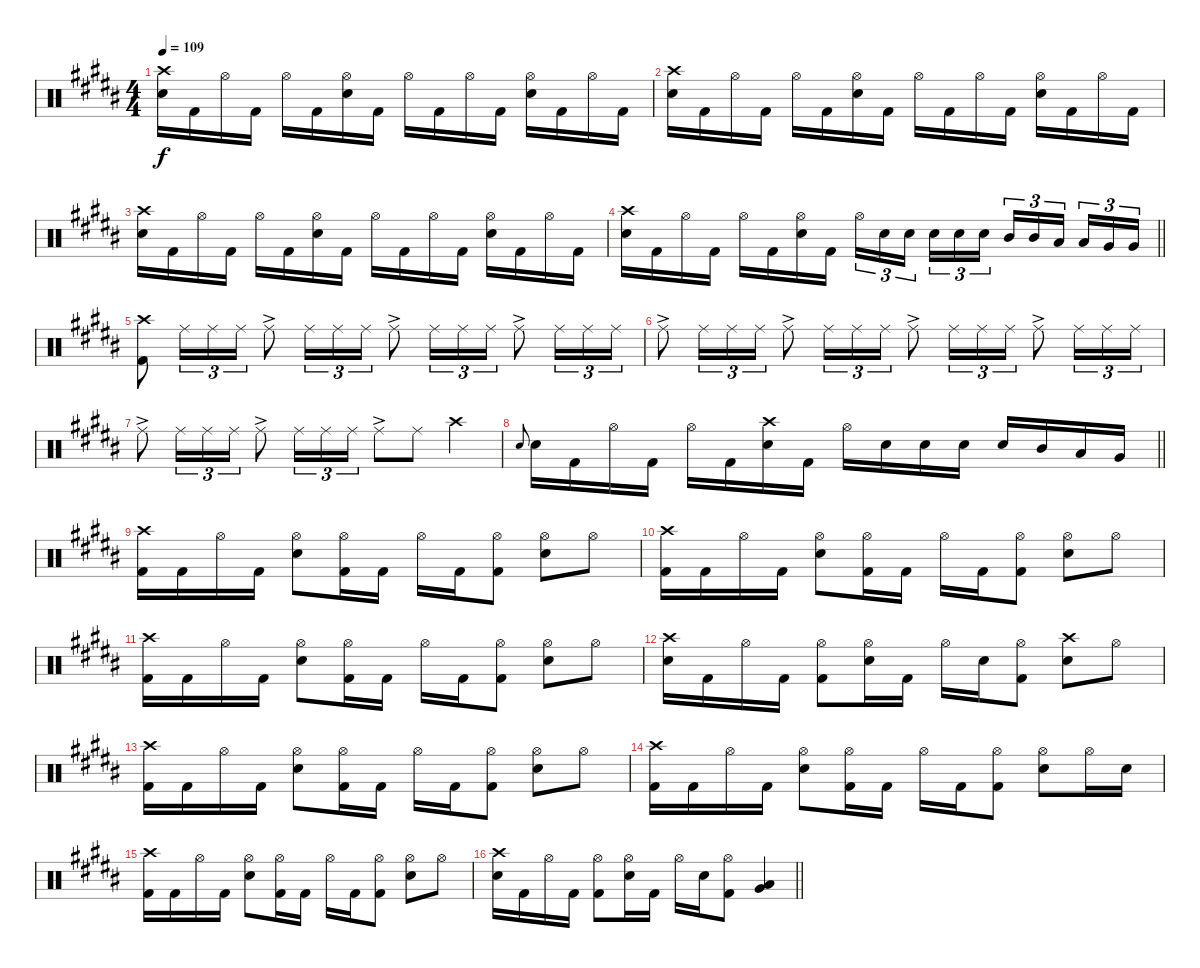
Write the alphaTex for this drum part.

\track "" {instrument percussion}
\staff {score}
\articulation defaults
\ts (4 4)
\tempo 109
\clef neutral
\ks g#minor
("Crash high (hit)" "Snare (hit) 2").16{dy f} "Kick (hit) 2".16 "Hi-Hat (open)".16 "Kick (hit) 2".16 "Hi-Hat (open)".16 "Kick (hit) 2".16 ("Hi-Hat (open)" "Snare (hit) 2").16 "Kick (hit) 2".16 "Hi-Hat (open)".16 "Kick (hit) 2".16 "Hi-Hat (open)".16 "Kick (hit) 2".16 ("Hi-Hat (open)" "Snare (hit) 2").16 "Kick (hit) 2".16 "Hi-Hat (open)".16 "Kick (hit) 2".16 |
("Crash high (hit)" "Snare (hit) 2").16 "Kick (hit) 2".16 "Hi-Hat (open)".16 "Kick (hit) 2".16 "Hi-Hat (open)".16 "Kick (hit) 2".16 ("Hi-Hat (open)" "Snare (hit) 2").16 "Kick (hit) 2".16 "Hi-Hat (open)".16 "Kick (hit) 2".16 "Hi-Hat (open)".16 "Kick (hit) 2".16 ("Hi-Hat (open)" "Snare (hit) 2").16 "Kick (hit) 2".16 "Hi-Hat (open)".16 "Kick (hit) 2".16 |
("Crash high (hit)" "Snare (hit) 2").16 "Kick (hit) 2".16 "Hi-Hat (open)".16 "Kick (hit) 2".16 "Hi-Hat (open)".16 "Kick (hit) 2".16 ("Hi-Hat (open)" "Snare (hit) 2").16 "Kick (hit) 2".16 "Hi-Hat (open)".16 "Kick (hit) 2".16 "Hi-Hat (open)".16 "Kick (hit) 2".16 ("Hi-Hat (open)" "Snare (hit) 2").16 "Kick (hit) 2".16 "Hi-Hat (open)".16 "Kick (hit) 2".16 |
\barLineRight lightlight
("Crash high (hit)" "Snare (hit) 2").16 "Kick (hit) 2".16 "Hi-Hat (open)".16 "Kick (hit) 2".16 "Hi-Hat (open)".16 "Kick (hit) 2".16 ("Hi-Hat (open)" "Snare (hit) 2").16 "Kick (hit) 2".16 "Hi-Hat (open)".16{tu (3 2)} "Snare (hit) 2".16{tu (3 2)} "Snare (hit) 2".16{tu (3 2) beam splitsecondary} "Snare (hit) 2".16{tu (3 2)} "Snare (hit) 2".16{tu (3 2)} "Snare (hit) 2".16{tu (3 2)} "Mid Tom (hit)".16{tu (3 2)} "Mid Tom (hit)".16{tu (3 2)} "Low Tom (hit)".16{tu (3 2) beam splitsecondary} "Low Tom (hit)".16{tu (3 2)} "Very Low Tom (hit)".16{tu (3 2)} "Very Low Tom (hit)".16{tu (3 2)} |
("Crash high (hit)" "Kick (hit) 2").8 "Ride (middle)".16{tu (3 2)} "Ride (middle)".16{tu (3 2)} "Ride (middle)".16{tu (3 2)} "Ride (middle)"{ac}.8 "Ride (middle)".16{tu (3 2)} "Ride (middle)".16{tu (3 2)} "Ride (middle)".16{tu (3 2)} "Ride (middle)"{ac}.8 "Ride (middle)".16{tu (3 2)} "Ride (middle)".16{tu (3 2)} "Ride (middle)".16{tu (3 2)} "Ride (middle)"{ac}.8 "Ride (middle)".16{tu (3 2)} "Ride (middle)".16{tu (3 2)} "Ride (middle)".16{tu (3 2)} |
"Ride (middle)"{ac}.8 "Ride (middle)".16{tu (3 2)} "Ride (middle)".16{tu (3 2)} "Ride (middle)".16{tu (3 2)} "Ride (middle)"{ac}.8 "Ride (middle)".16{tu (3 2)} "Ride (middle)".16{tu (3 2)} "Ride (middle)".16{tu (3 2)} "Ride (middle)"{ac}.8 "Ride (middle)".16{tu (3 2)} "Ride (middle)".16{tu (3 2)} "Ride (middle)".16{tu (3 2)} "Ride (middle)"{ac}.8 "Ride (middle)".16{tu (3 2)} "Ride (middle)".16{tu (3 2)} "Ride (middle)".16{tu (3 2)} |
"Ride (middle)"{ac}.8 "Ride (middle)".16{tu (3 2)} "Ride (middle)".16{tu (3 2)} "Ride (middle)".16{tu (3 2)} "Ride (middle)"{ac}.8 "Ride (middle)".16{tu (3 2)} "Ride (middle)".16{tu (3 2)} "Ride (middle)".16{tu (3 2)} "Ride (middle)"{ac}.8 "Ride (middle)".8 "Crash high (hit)".4 |
\barLineRight lightlight "Snare (hit) 2".8{gr onbeat} "Snare (hit) 2".16 "Kick (hit) 2".16 "Hi-Hat (open)".16 "Kick (hit) 2".16 "Hi-Hat (open)".16 "Kick (hit) 2".16
("Crash high (hit)" "Snare (hit) 2").16 "Kick (hit) 2".16 "Hi-Hat (open)".16 "Snare (hit) 2".16 "Snare (hit) 2".16 "Snare (hit) 2".16 "Snare (hit) 2".16 "Mid Tom (hit)".16 "Low Tom (hit)".16 "Very Low Tom (hit)".16 |
("Crash high (hit)" "Kick (hit) 2").16 "Kick (hit) 2".16 "Hi-Hat (open)".16 "Kick (hit) 2".16 ("Hi-Hat (open)" "Snare (hit) 2").8 ("Hi-Hat (open)" "Kick (hit) 2").16 "Kick (hit) 2".16 "Hi-Hat (open)".16 "Kick (hit) 2".16 ("Hi-Hat (open)" "Kick (hit) 2").8 ("Hi-Hat (open)" "Snare (hit) 2").8 "Hi-Hat (open)".8 |
("Crash high (hit)" "Kick (hit) 2").16 "Kick (hit) 2".16 "Hi-Hat (open)".16 "Kick (hit) 2".16 ("Hi-Hat (open)" "Snare (hit) 2").8 ("Hi-Hat (open)" "Kick (hit) 2").16 "Kick (hit) 2".16 "Hi-Hat (open)".16 "Kick (hit) 2".16 ("Hi-Hat (open)" "Kick (hit) 2").8 ("Hi-Hat (open)" "Snare (hit) 2").8 "Hi-Hat (open)".8 |
("Crash high (hit)" "Kick (hit) 2").16 "Kick (hit) 2".16 "Hi-Hat (open)".16 "Kick (hit) 2".16 ("Hi-Hat (open)" "Snare (hit) 2").8 ("Hi-Hat (open)" "Kick (hit) 2").16 "Kick (hit) 2".16 "Hi-Hat (open)".16 "Kick (hit) 2".16 ("Hi-Hat (open)" "Kick (hit) 2").8 ("Hi-Hat (open)" "Snare (hit) 2").8 "Hi-Hat (open)".8 |
("Crash high (hit)" "Snare (hit) 2").16 "Kick (hit) 2".16 "Hi-Hat (open)".16 "Kick (hit) 2".16 ("Hi-Hat (open)" "Kick (hit) 2").8 ("Hi-Hat (open)" "Snare (hit) 2").16 "Kick (hit) 2".16 "Hi-Hat (open)".16 "Snare (hit) 2".16 ("Hi-Hat (open)" "Kick (hit) 2").8 ("Crash high (hit)" "Snare (hit) 2").8 "Hi-Hat (open)".8 |
("Crash high (hit)" "Kick (hit) 2").16 "Kick (hit) 2".16 "Hi-Hat (open)".16 "Kick (hit) 2".16 ("Hi-Hat (open)" "Snare (hit) 2").8 ("Hi-Hat (open)" "Kick (hit) 2").16 "Kick (hit) 2".16 "Hi-Hat (open)".16 "Kick (hit) 2".16 ("Hi-Hat (open)" "Kick (hit) 2").8 ("Hi-Hat (open)" "Snare (hit) 2").8 "Hi-Hat (open)".8 |
("Crash high (hit)" "Kick (hit) 2").16 "Kick (hit) 2".16 "Hi-Hat (open)".16 "Kick (hit) 2".16 ("Hi-Hat (open)" "Snare (hit) 2").8 ("Hi-Hat (open)" "Kick (hit) 2").16 "Kick (hit) 2".16 "Hi-Hat (open)".16 "Kick (hit) 2".16 ("Hi-Hat (open)" "Kick (hit) 2").8 ("Hi-Hat (open)" "Snare (hit) 2").8 "Hi-Hat (open)".16 "Snare (hit) 2".16 |
("Crash high (hit)" "Kick (hit) 2").16 "Kick (hit) 2".16 "Hi-Hat (open)".16 "Kick (hit) 2".16 ("Hi-Hat (open)" "Snare (hit) 2").8 ("Hi-Hat (open)" "Kick (hit) 2").16 "Kick (hit) 2".16 "Hi-Hat (open)".16 "Kick (hit) 2".16 ("Hi-Hat (open)" "Kick (hit) 2").8 ("Hi-Hat (open)" "Snare (hit) 2").8 "Hi-Hat (open)".8 |
\barLineRight lightlight
("Crash high (hit)" "Snare (hit) 2").16 "Kick (hit) 2".16 "Hi-Hat (open)".16 "Kick (hit) 2".16 ("Hi-Hat (open)" "Kick (hit) 2").8 ("Hi-Hat (open)" "Snare (hit) 2").16 "Kick (hit) 2".16 "Hi-Hat (open)".16 "Snare (hit) 2".16 ("Hi-Hat (open)" "Kick (hit) 2").8 ("Low Tom (hit)" "Very Low Tom (hit)").4
